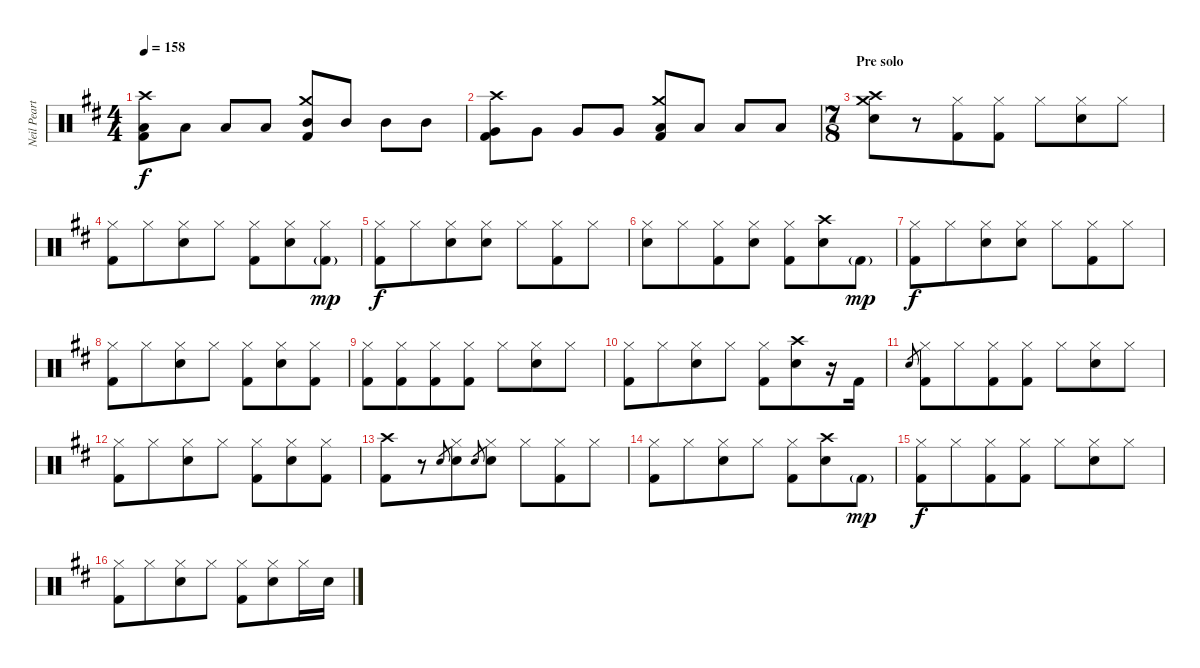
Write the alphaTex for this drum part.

\track ("Neil Peart (drums)" "Neil Peart") {instrument percussion}
\staff {score}
\articulation defaults
\ts (4 4)
\tempo 158
\clef neutral
\ks bminor
("Crash high (hit)" "Low Floor Tom (hit)" "Kick (hit) 2").8{dy f} "Low Floor Tom (hit)".8 "Low Floor Tom (hit)".8 "Low Floor Tom (hit)".8 ("Crash medium (hit)" "Mid Tom (hit)" "Kick (hit) 2").8 "Mid Tom (hit)".8 "Mid Tom (hit)".8 "Mid Tom (hit)".8 |
("Crash high (hit)" "Very Low Tom (hit)" "Kick (hit) 2").8 "Very Low Tom (hit)".8 "Very Low Tom (hit)".8 "Very Low Tom (hit)".8 ("Crash medium (hit)" "Low Tom (hit)" "Kick (hit) 2").8 "Low Tom (hit)".8 "Low Tom (hit)".8 "Low Tom (hit)".8 |
\ts (7 8)
\section ("" "Pre solo")
("Crash high (hit)" "Crash medium (hit)" "Electric Snare (hit)").8 r.8 ("Hi-Hat (closed)" "Kick (hit) 2").8 ("Hi-Hat (closed)" "Kick (hit) 2").8 "Hi-Hat (closed)".8 ("Hi-Hat (closed)" "Electric Snare (hit)").8 "Hi-Hat (closed)".8 |
("Hi-Hat (closed)" "Kick (hit) 2").8 "Hi-Hat (closed)".8 ("Hi-Hat (closed)" "Electric Snare (hit)").8 "Hi-Hat (closed)".8 ("Hi-Hat (closed)" "Kick (hit) 2").8 ("Hi-Hat (closed)" "Electric Snare (hit)").8 ("Hi-Hat (closed)" "Kick (hit) 2"{g}).8{dy mp} |
("Hi-Hat (closed)" "Kick (hit) 2").8{dy f} "Hi-Hat (closed)".8 ("Hi-Hat (closed)" "Electric Snare (hit)").8 ("Hi-Hat (closed)" "Electric Snare (hit)").8 "Hi-Hat (closed)".8 ("Hi-Hat (closed)" "Kick (hit) 2").8 "Hi-Hat (closed)".8 |
("Hi-Hat (closed)" "Electric Snare (hit)").8 "Hi-Hat (closed)".8 ("Hi-Hat (closed)" "Kick (hit) 2").8 ("Hi-Hat (closed)" "Electric Snare (hit)").8 ("Hi-Hat (closed)" "Kick (hit) 2").8 ("Crash high (hit)" "Electric Snare (hit)").8 "Kick (hit) 2"{g}.8{dy mp} |
("Hi-Hat (closed)" "Kick (hit) 2").8{dy f} "Hi-Hat (closed)".8 ("Hi-Hat (closed)" "Electric Snare (hit)").8 ("Hi-Hat (closed)" "Electric Snare (hit)").8 "Hi-Hat (closed)".8 ("Hi-Hat (closed)" "Kick (hit) 2").8 "Hi-Hat (closed)".8 |
("Hi-Hat (closed)" "Kick (hit) 2").8 "Hi-Hat (closed)".8 ("Hi-Hat (closed)" "Electric Snare (hit)").8 "Hi-Hat (closed)".8 ("Hi-Hat (closed)" "Kick (hit) 2").8 ("Hi-Hat (closed)" "Electric Snare (hit)").8 ("Hi-Hat (closed)" "Kick (hit) 2").8 |
("Hi-Hat (closed)" "Kick (hit) 2").8 ("Hi-Hat (closed)" "Kick (hit) 2").8 ("Hi-Hat (closed)" "Kick (hit) 2").8 ("Hi-Hat (closed)" "Kick (hit) 2").8 "Hi-Hat (closed)".8 ("Hi-Hat (closed)" "Electric Snare (hit)").8 "Hi-Hat (closed)".8 |
("Hi-Hat (closed)" "Kick (hit) 2").8 "Hi-Hat (closed)".8 ("Hi-Hat (closed)" "Electric Snare (hit)").8 "Hi-Hat (closed)".8 ("Hi-Hat (closed)" "Kick (hit) 2").8 ("Crash high (hit)" "Electric Snare (hit)").8 r.16 "Kick (hit) 2".16 |
"Electric Snare (hit)".8{gr} ("Hi-Hat (closed)" "Kick (hit) 2").8 "Hi-Hat (closed)".8 ("Hi-Hat (closed)" "Kick (hit) 2").8 ("Hi-Hat (closed)" "Kick (hit) 2").8 "Hi-Hat (closed)".8 ("Hi-Hat (closed)" "Electric Snare (hit)").8 "Hi-Hat (closed)".8 |
("Hi-Hat (closed)" "Kick (hit) 2").8 "Hi-Hat (closed)".8 ("Hi-Hat (closed)" "Electric Snare (hit)").8 "Hi-Hat (closed)".8 ("Hi-Hat (closed)" "Kick (hit) 2").8 ("Hi-Hat (closed)" "Electric Snare (hit)").8 ("Hi-Hat (closed)" "Kick (hit) 2").8 |
("Crash high (hit)" "Kick (hit) 2").8 r.8 "Electric Snare (hit)".8{gr} ("Hi-Hat (closed)" "Electric Snare (hit)").8 "Electric Snare (hit)".8{gr} ("Hi-Hat (closed)" "Electric Snare (hit)").8 "Hi-Hat (closed)".8 ("Hi-Hat (closed)" "Kick (hit) 2").8 "Hi-Hat (closed)".8 |
("Hi-Hat (closed)" "Kick (hit) 2").8 "Hi-Hat (closed)".8 ("Hi-Hat (closed)" "Electric Snare (hit)").8 "Hi-Hat (closed)".8 ("Hi-Hat (closed)" "Kick (hit) 2").8 ("Crash high (hit)" "Electric Snare (hit)").8 "Kick (hit) 2"{g}.8{dy mp} |
("Hi-Hat (closed)" "Kick (hit) 2").8{dy f} "Hi-Hat (closed)".8 ("Hi-Hat (closed)" "Kick (hit) 2").8 ("Hi-Hat (closed)" "Kick (hit) 2").8 "Hi-Hat (closed)".8 ("Hi-Hat (closed)" "Electric Snare (hit)").8 "Hi-Hat (closed)".8 |
("Hi-Hat (closed)" "Kick (hit) 2").8 "Hi-Hat (closed)".8 ("Hi-Hat (closed)" "Electric Snare (hit)").8 "Hi-Hat (closed)".8 ("Hi-Hat (closed)" "Kick (hit) 2").8 ("Hi-Hat (closed)" "Electric Snare (hit)").8 "Hi-Hat (closed)".16 "Electric Snare (hit)".16
